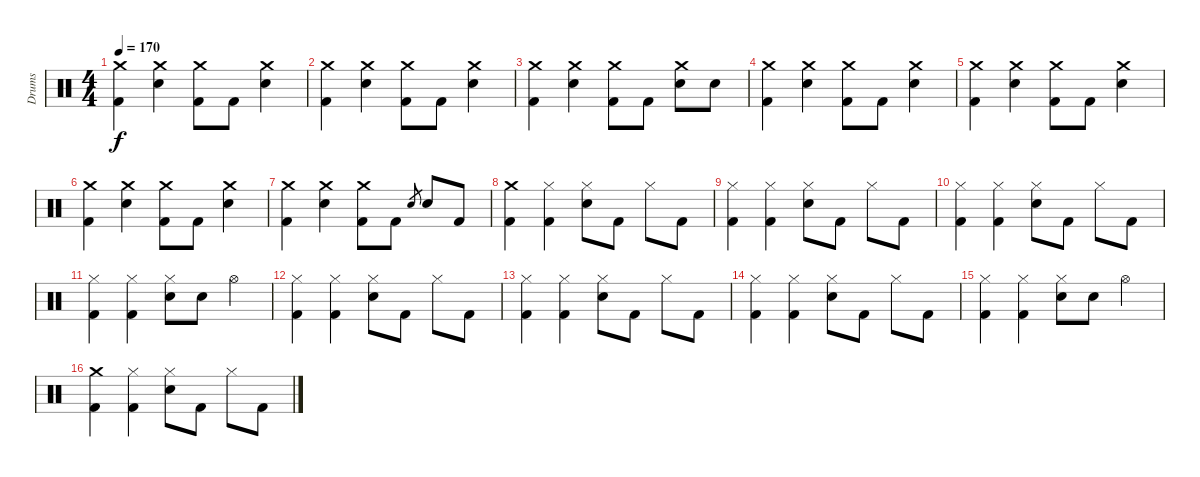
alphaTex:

\track ("Drums" "Drums") {instrument percussion}
\staff {score}
\articulation defaults
\ts (4 4)
\tempo 170
\clef neutral
\ks c
("Crash medium (hit)" "Kick (hit) 2").4{dy f} ("Crash medium (hit)" "Electric Snare (hit)").4 ("Crash medium (hit)" "Kick (hit) 2").8 "Kick (hit) 2".8 ("Crash medium (hit)" "Electric Snare (hit)").4 |
("Crash medium (hit)" "Kick (hit) 2").4 ("Crash medium (hit)" "Electric Snare (hit)").4 ("Crash medium (hit)" "Kick (hit) 2").8 "Kick (hit) 2".8 ("Crash medium (hit)" "Electric Snare (hit)").4 |
("Crash medium (hit)" "Kick (hit) 2").4 ("Crash medium (hit)" "Electric Snare (hit)").4 ("Crash medium (hit)" "Kick (hit) 2").8 "Kick (hit) 2".8 ("Crash medium (hit)" "Electric Snare (hit)").8 "Electric Snare (hit)".8 |
("Crash medium (hit)" "Kick (hit) 2").4 ("Crash medium (hit)" "Electric Snare (hit)").4 ("Crash medium (hit)" "Kick (hit) 2").8 "Kick (hit) 2".8 ("Crash medium (hit)" "Electric Snare (hit)").4 |
("Crash medium (hit)" "Kick (hit) 2").4 ("Crash medium (hit)" "Electric Snare (hit)").4 ("Crash medium (hit)" "Kick (hit) 2").8 "Kick (hit) 2".8 ("Crash medium (hit)" "Electric Snare (hit)").4 |
("Crash medium (hit)" "Kick (hit) 2").4 ("Crash medium (hit)" "Electric Snare (hit)").4 ("Crash medium (hit)" "Kick (hit) 2").8 "Kick (hit) 2".8 ("Crash medium (hit)" "Electric Snare (hit)").4 |
("Crash medium (hit)" "Kick (hit) 2").4 ("Crash medium (hit)" "Electric Snare (hit)").4 ("Crash medium (hit)" "Kick (hit) 2").8 "Kick (hit) 2".8 "Electric Snare (hit)".8{gr} "Electric Snare (hit)".8 "Kick (hit) 2".8 |
("Crash medium (hit)" "Kick (hit) 2").4 ("Hi-Hat (closed)" "Kick (hit) 2").4 ("Hi-Hat (closed)" "Electric Snare (hit)").8 "Kick (hit) 2".8 "Hi-Hat (closed)".8 "Kick (hit) 2".8 |
("Hi-Hat (closed)" "Kick (hit) 2").4 ("Hi-Hat (closed)" "Kick (hit) 2").4 ("Hi-Hat (closed)" "Electric Snare (hit)").8 "Kick (hit) 2".8 "Hi-Hat (closed)".8 "Kick (hit) 2".8 |
("Hi-Hat (closed)" "Kick (hit) 2").4 ("Hi-Hat (closed)" "Kick (hit) 2").4 ("Hi-Hat (closed)" "Electric Snare (hit)").8 "Kick (hit) 2".8 "Hi-Hat (closed)".8 "Kick (hit) 2".8 |
("Hi-Hat (closed)" "Kick (hit) 2").4 ("Hi-Hat (closed)" "Kick (hit) 2").4 ("Hi-Hat (closed)" "Electric Snare (hit)").8 "Electric Snare (hit)".8 "Hi-Hat (open)".4 |
("Hi-Hat (closed)" "Kick (hit) 2").4 ("Hi-Hat (closed)" "Kick (hit) 2").4 ("Hi-Hat (closed)" "Electric Snare (hit)").8 "Kick (hit) 2".8 "Hi-Hat (closed)".8 "Kick (hit) 2".8 |
("Hi-Hat (closed)" "Kick (hit) 2").4 ("Hi-Hat (closed)" "Kick (hit) 2").4 ("Hi-Hat (closed)" "Electric Snare (hit)").8 "Kick (hit) 2".8 "Hi-Hat (closed)".8 "Kick (hit) 2".8 |
("Hi-Hat (closed)" "Kick (hit) 2").4 ("Hi-Hat (closed)" "Kick (hit) 2").4 ("Hi-Hat (closed)" "Electric Snare (hit)").8 "Kick (hit) 2".8 "Hi-Hat (closed)".8 "Kick (hit) 2".8 |
("Hi-Hat (closed)" "Kick (hit) 2").4 ("Hi-Hat (closed)" "Kick (hit) 2").4 ("Hi-Hat (closed)" "Electric Snare (hit)").8 "Electric Snare (hit)".8 "Hi-Hat (open)".4 |
("Crash medium (hit)" "Kick (hit) 2").4 ("Hi-Hat (closed)" "Kick (hit) 2").4 ("Hi-Hat (closed)" "Electric Snare (hit)").8 "Kick (hit) 2".8 "Hi-Hat (closed)".8 "Kick (hit) 2".8
